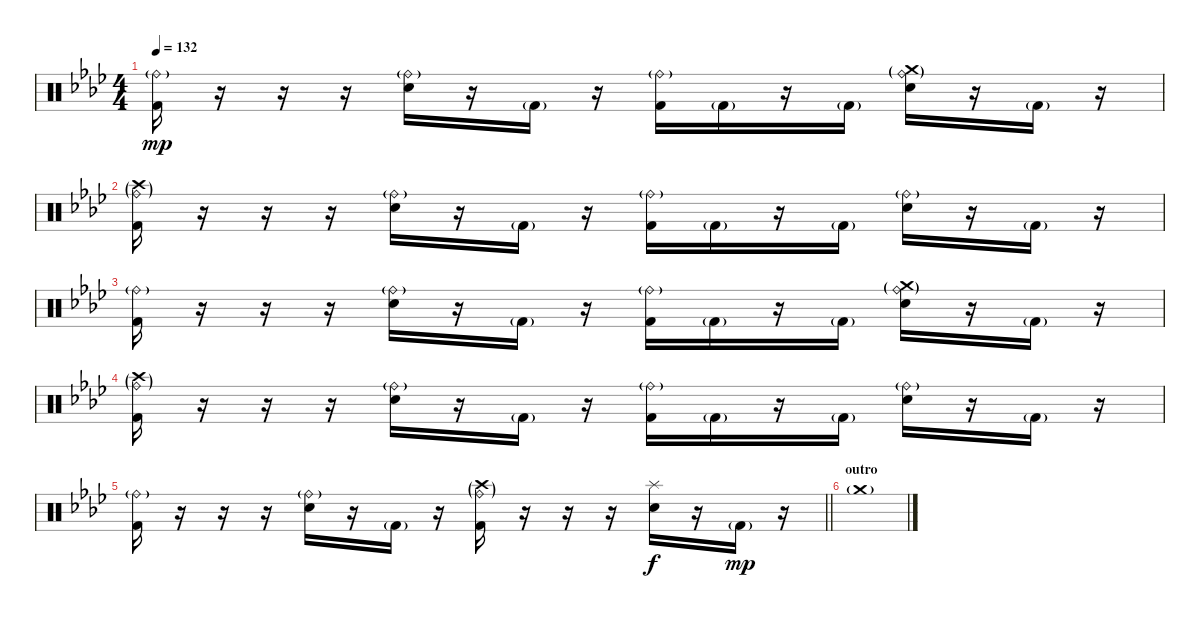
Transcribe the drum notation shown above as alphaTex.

\track "" {instrument percussion}
\staff {score}
\articulation defaults
\ts (4 4)
\tempo 132
\clef neutral
\ks fminor
("Kick (hit) 2" "Ride (bell)"{g}).16{dy mp} r.16 r.16 r.16 ("Electric Snare (hit)" "Ride (bell)"{g}).16 r.16 "Kick (hit) 2"{g}.16 r.16 ("Kick (hit) 2" "Ride (bell)"{g}).16 "Kick (hit) 2"{g}.16 r.16 "Kick (hit) 2"{g}.16 ("Electric Snare (hit)" "Ride (bell)"{g} "Crash medium (hit)"{g}).16 r.16 "Kick (hit) 2"{g}.16 r.16 |
("Kick (hit) 2" "Ride (bell)"{g} "Crash high (hit)"{g}).16 r.16 r.16 r.16 ("Electric Snare (hit)" "Ride (bell)"{g}).16 r.16 "Kick (hit) 2"{g}.16 r.16 ("Kick (hit) 2" "Ride (bell)"{g}).16 "Kick (hit) 2"{g}.16 r.16 "Kick (hit) 2"{g}.16 ("Electric Snare (hit)" "Ride (bell)"{g}).16 r.16 "Kick (hit) 2"{g}.16 r.16 |
("Kick (hit) 2" "Ride (bell)"{g}).16 r.16 r.16 r.16 ("Electric Snare (hit)" "Ride (bell)"{g}).16 r.16 "Kick (hit) 2"{g}.16 r.16 ("Kick (hit) 2" "Ride (bell)"{g}).16 "Kick (hit) 2"{g}.16 r.16 "Kick (hit) 2"{g}.16 ("Electric Snare (hit)" "Ride (bell)"{g} "Crash medium (hit)"{g}).16 r.16 "Kick (hit) 2"{g}.16 r.16 |
("Kick (hit) 2" "Ride (bell)"{g} "Crash high (hit)"{g}).16 r.16 r.16 r.16 ("Electric Snare (hit)" "Ride (bell)"{g}).16 r.16 "Kick (hit) 2"{g}.16 r.16 ("Kick (hit) 2" "Ride (bell)"{g}).16 "Kick (hit) 2"{g}.16 r.16 "Kick (hit) 2"{g}.16 ("Electric Snare (hit)" "Ride (bell)"{g}).16 r.16 "Kick (hit) 2"{g}.16 r.16 |
\barLineRight lightlight
("Kick (hit) 2" "Ride (bell)"{g}).16 r.16 r.16 r.16 ("Electric Snare (hit)" "Ride (bell)"{g}).16 r.16 "Kick (hit) 2"{g}.16 r.16 ("Kick (hit) 2" "Ride (bell)"{g} "Crash high (hit)"{g}).16 r.16 r.16 r.16 ("Electric Snare (hit)" "Splash (hit)").16{dy f} r.16 "Kick (hit) 2"{g}.16{dy mp} r.16 |
\section ("" "outro")
"Crash medium (hit)"{g}.1
